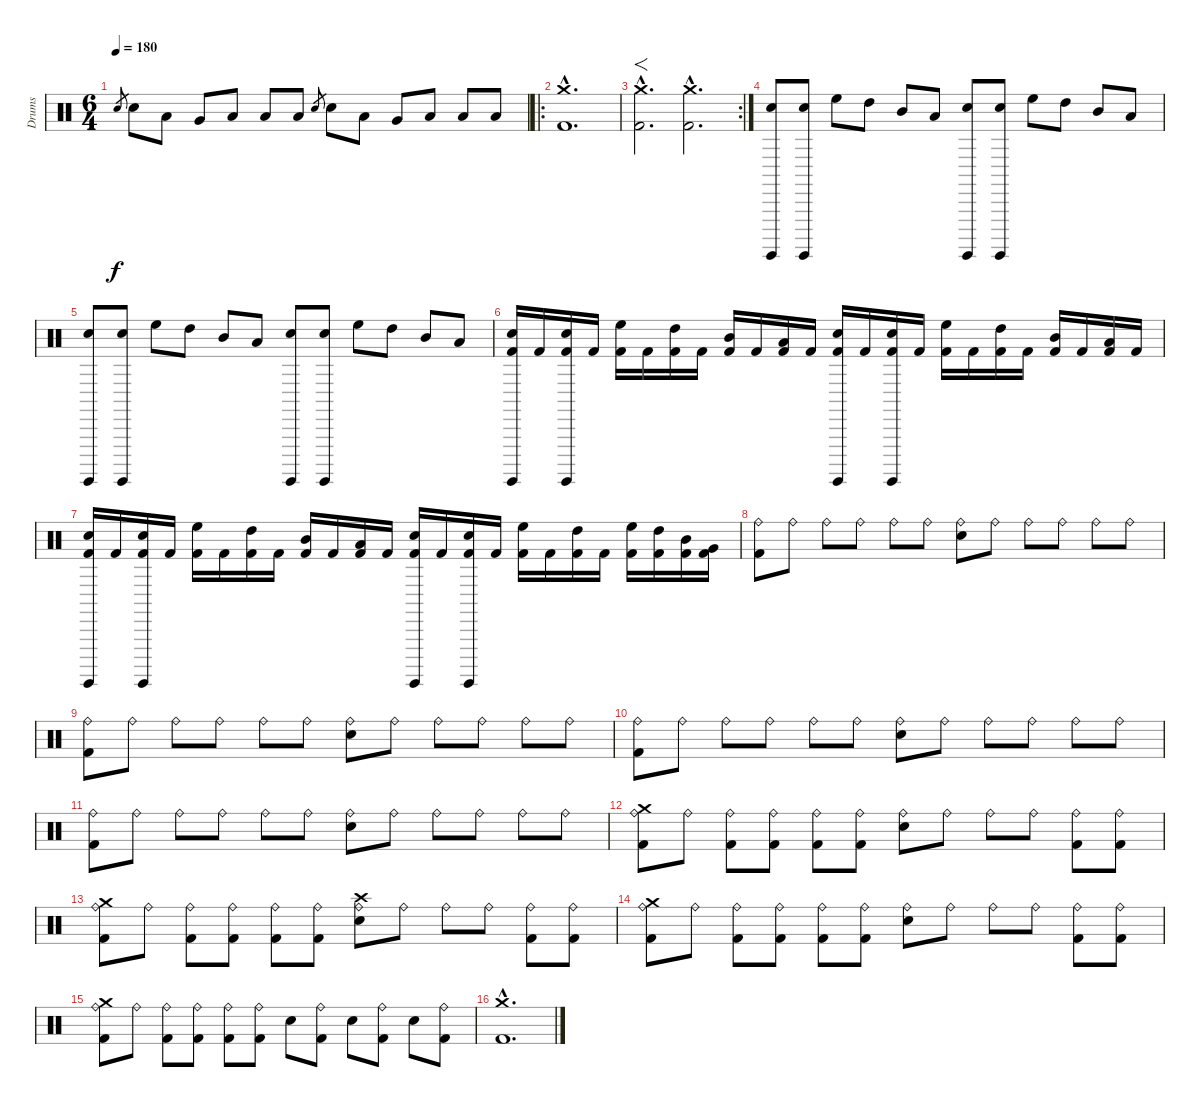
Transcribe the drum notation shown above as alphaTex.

\track ("Drums" "Drums") {instrument percussion}
\staff {score}
\articulation defaults
\ts (6 4)
\tempo 180
\clef neutral
\ks c "Electric Snare (hit)".8{gr dy f} "Electric Snare (hit)".8 "Low Tom (hit)".8 "Very Low Tom (hit)".8 "Low Floor Tom (hit)".8 "Low Floor Tom (hit)".8 "Low Floor Tom (hit)".8 "Electric Snare (hit)".8{gr} "Electric Snare (hit)".8 "Low Tom (hit)".8 "Very Low Tom (hit)".8 "Low Floor Tom (hit)".8 "Low Floor Tom (hit)".8 "Low Floor Tom (hit)".8
|
\ro
("Crash medium (hit)"{hac} "Kick (hit) 2"{hac}).1{d} |
\rc 2
("Crash medium (hit)"{hac} "Kick (hit) 2"{hac}).2{f d} ("Crash medium (hit)"{hac} "Kick (hit) 2"{hac}).2{d} |
("Surdo (hit)" "Electric Snare (hit)").8 ("Surdo (hit)" "Electric Snare (hit)").8 "High Floor Tom (hit)".8 "High Tom (hit)".8 "Mid Tom (hit)".8 "Low Tom (hit)".8 ("Surdo (hit)" "Electric Snare (hit)").8 ("Surdo (hit)" "Electric Snare (hit)").8 "High Floor Tom (hit)".8 "High Tom (hit)".8 "Mid Tom (hit)".8 "Low Tom (hit)".8 |
("Surdo (hit)" "Electric Snare (hit)").8 ("Surdo (hit)" "Electric Snare (hit)").8 "High Floor Tom (hit)".8 "High Tom (hit)".8 "Mid Tom (hit)".8 "Low Tom (hit)".8 ("Surdo (hit)" "Electric Snare (hit)").8 ("Surdo (hit)" "Electric Snare (hit)").8 "High Floor Tom (hit)".8 "High Tom (hit)".8 "Mid Tom (hit)".8 "Low Tom (hit)".8 |
("Kick (hit) 2" "Surdo (hit)" "Electric Snare (hit)").16 "Kick (hit) 2".16 ("Kick (hit) 2" "Surdo (hit)" "Electric Snare (hit)").16 "Kick (hit) 2".16 ("Kick (hit) 2" "High Floor Tom (hit)").16 "Kick (hit) 2".16 ("Kick (hit) 2" "High Tom (hit)").16 "Kick (hit) 2".16 ("Kick (hit) 2" "Mid Tom (hit)").16 "Kick (hit) 2".16 ("Kick (hit) 2" "Low Tom (hit)").16 "Kick (hit) 2".16 ("Kick (hit) 2" "Surdo (hit)" "Electric Snare (hit)").16 "Kick (hit) 2".16 ("Kick (hit) 2" "Surdo (hit)" "Electric Snare (hit)").16 "Kick (hit) 2".16 ("Kick (hit) 2" "High Floor Tom (hit)").16 "Kick (hit) 2".16 ("Kick (hit) 2" "High Tom (hit)").16 "Kick (hit) 2".16 ("Kick (hit) 2" "Mid Tom (hit)").16 "Kick (hit) 2".16 ("Kick (hit) 2" "Low Tom (hit)").16 "Kick (hit) 2".16 |
("Kick (hit) 2" "Surdo (hit)" "Electric Snare (hit)").16 "Kick (hit) 2".16 ("Kick (hit) 2" "Surdo (hit)" "Electric Snare (hit)").16 "Kick (hit) 2".16 ("Kick (hit) 2" "High Floor Tom (hit)").16 "Kick (hit) 2".16 ("Kick (hit) 2" "High Tom (hit)").16 "Kick (hit) 2".16 ("Kick (hit) 2" "Mid Tom (hit)").16 "Kick (hit) 2".16 ("Kick (hit) 2" "Low Tom (hit)").16 "Kick (hit) 2".16 ("Kick (hit) 2" "Surdo (hit)" "Electric Snare (hit)").16 "Kick (hit) 2".16 ("Kick (hit) 2" "Surdo (hit)" "Electric Snare (hit)").16 "Kick (hit) 2".16 ("Kick (hit) 2" "High Floor Tom (hit)").16 "Kick (hit) 2".16 ("Kick (hit) 2" "High Tom (hit)").16 "Kick (hit) 2".16 ("Kick (hit) 2" "High Floor Tom (hit)").16 ("Kick (hit) 2" "High Tom (hit)").16 ("Kick (hit) 2" "Mid Tom (hit)").16 ("Kick (hit) 2" "Very Low Tom (hit)").16 |
("Kick (hit) 2" "Ride (bell)").8 "Ride (bell)".8 "Ride (bell)".8 "Ride (bell)".8 "Ride (bell)".8 "Ride (bell)".8 ("Electric Snare (hit)" "Ride (bell)").8 "Ride (bell)".8 "Ride (bell)".8 "Ride (bell)".8 "Ride (bell)".8 "Ride (bell)".8 |
("Kick (hit) 2" "Ride (bell)").8 "Ride (bell)".8 "Ride (bell)".8 "Ride (bell)".8 "Ride (bell)".8 "Ride (bell)".8 ("Electric Snare (hit)" "Ride (bell)").8 "Ride (bell)".8 "Ride (bell)".8 "Ride (bell)".8 "Ride (bell)".8 "Ride (bell)".8 |
("Kick (hit) 2" "Ride (bell)").8 "Ride (bell)".8 "Ride (bell)".8 "Ride (bell)".8 "Ride (bell)".8 "Ride (bell)".8 ("Electric Snare (hit)" "Ride (bell)").8 "Ride (bell)".8 "Ride (bell)".8 "Ride (bell)".8 "Ride (bell)".8 "Ride (bell)".8 |
("Kick (hit) 2" "Ride (bell)").8 "Ride (bell)".8 "Ride (bell)".8 "Ride (bell)".8 "Ride (bell)".8 "Ride (bell)".8 ("Electric Snare (hit)" "Ride (bell)").8 "Ride (bell)".8 "Ride (bell)".8 "Ride (bell)".8 "Ride (bell)".8 "Ride (bell)".8 |
("Crash medium (hit)" "Ride (bell)" "Kick (hit) 2").8 "Ride (bell)".8 ("Ride (bell)" "Kick (hit) 2").8 ("Ride (bell)" "Kick (hit) 2").8 ("Ride (bell)" "Kick (hit) 2").8 ("Ride (bell)" "Kick (hit) 2").8 ("Ride (bell)" "Electric Snare (hit)").8 "Ride (bell)".8 "Ride (bell)".8 "Ride (bell)".8 ("Ride (bell)" "Kick (hit) 2").8 ("Ride (bell)" "Kick (hit) 2").8 |
("Crash medium (hit)" "Ride (bell)" "Kick (hit) 2").8 "Ride (bell)".8 ("Ride (bell)" "Kick (hit) 2").8 ("Ride (bell)" "Kick (hit) 2").8 ("Ride (bell)" "Kick (hit) 2").8 ("Ride (bell)" "Kick (hit) 2").8 ("Crash high (hit)" "Ride (bell)" "Electric Snare (hit)").8 "Ride (bell)".8 "Ride (bell)".8 "Ride (bell)".8 ("Ride (bell)" "Kick (hit) 2").8 ("Ride (bell)" "Kick (hit) 2").8 |
("Crash medium (hit)" "Ride (bell)" "Kick (hit) 2").8 "Ride (bell)".8 ("Ride (bell)" "Kick (hit) 2").8 ("Ride (bell)" "Kick (hit) 2").8 ("Ride (bell)" "Kick (hit) 2").8 ("Ride (bell)" "Kick (hit) 2").8 ("Ride (bell)" "Electric Snare (hit)").8 "Ride (bell)".8 "Ride (bell)".8 "Ride (bell)".8 ("Ride (bell)" "Kick (hit) 2").8 ("Ride (bell)" "Kick (hit) 2").8 |
("Crash medium (hit)" "Ride (bell)" "Kick (hit) 2").8 "Ride (bell)".8 ("Ride (bell)" "Kick (hit) 2").8 ("Ride (bell)" "Kick (hit) 2").8 ("Ride (bell)" "Kick (hit) 2").8 ("Ride (bell)" "Kick (hit) 2").8 "Electric Snare (hit)".8 ("Ride (bell)" "Kick (hit) 2").8 "Electric Snare (hit)".8 ("Ride (bell)" "Kick (hit) 2").8 "Electric Snare (hit)".8 ("Ride (bell)" "Kick (hit) 2").8 |
("Crash medium (hit)"{hac} "Kick (hit) 2"{hac}).1{d}
